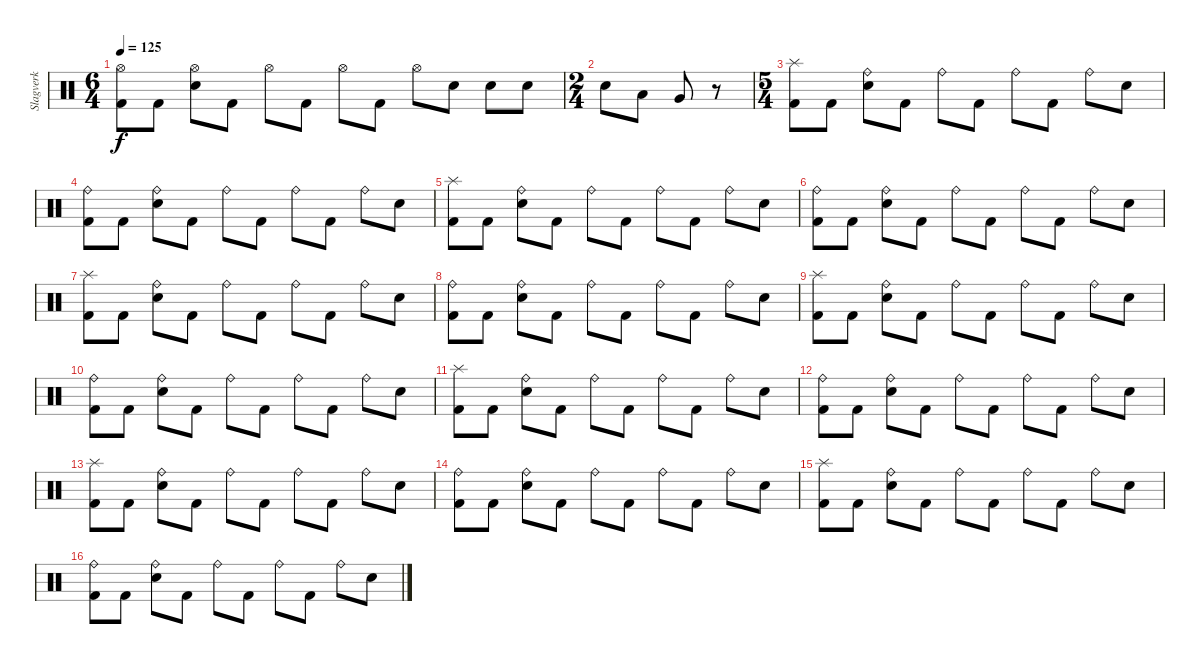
\track ("Slagverk" "Slagverk") {instrument percussion}
\staff {score}
\articulation defaults
\ts (6 4)
\tempo 125
\clef neutral
\ks c
("Hi-Hat (open)" "Kick (hit) 2").8{dy f} "Kick (hit) 2".8 ("Hi-Hat (open)" "Snare (hit) 2").8 "Kick (hit) 2".8 "Hi-Hat (open)".8 "Kick (hit) 2".8 "Hi-Hat (open)".8 "Kick (hit) 2".8 "Hi-Hat (open)".8 "Snare (hit) 2".8 "Snare (hit) 2".8 "Snare (hit) 2".8 |
\ts (2 4)
"Snare (hit) 2".8 "Low Tom (hit)".8 "Very Low Tom (hit)".8 r.8 |
\ts (5 4)
("Splash (hit)" "Kick (hit) 2").8 "Kick (hit) 2".8 ("Ride (bell)" "Snare (hit) 2").8 "Kick (hit) 2".8 "Ride (bell)".8 "Kick (hit) 2".8 "Ride (bell)".8 "Kick (hit) 2".8 "Ride (bell)".8 "Snare (hit) 2".8 |
("Ride (bell)" "Kick (hit) 2").8 "Kick (hit) 2".8 ("Ride (bell)" "Snare (hit) 2").8 "Kick (hit) 2".8 "Ride (bell)".8 "Kick (hit) 2".8 "Ride (bell)".8 "Kick (hit) 2".8 "Ride (bell)".8 "Snare (hit) 2".8 |
("Splash (hit)" "Kick (hit) 2").8 "Kick (hit) 2".8 ("Ride (bell)" "Snare (hit) 2").8 "Kick (hit) 2".8 "Ride (bell)".8 "Kick (hit) 2".8 "Ride (bell)".8 "Kick (hit) 2".8 "Ride (bell)".8 "Snare (hit) 2".8 |
("Ride (bell)" "Kick (hit) 2").8 "Kick (hit) 2".8 ("Ride (bell)" "Snare (hit) 2").8 "Kick (hit) 2".8 "Ride (bell)".8 "Kick (hit) 2".8 "Ride (bell)".8 "Kick (hit) 2".8 "Ride (bell)".8 "Snare (hit) 2".8 |
("Splash (hit)" "Kick (hit) 2").8 "Kick (hit) 2".8 ("Ride (bell)" "Snare (hit) 2").8 "Kick (hit) 2".8 "Ride (bell)".8 "Kick (hit) 2".8 "Ride (bell)".8 "Kick (hit) 2".8 "Ride (bell)".8 "Snare (hit) 2".8 |
("Ride (bell)" "Kick (hit) 2").8 "Kick (hit) 2".8 ("Ride (bell)" "Snare (hit) 2").8 "Kick (hit) 2".8 "Ride (bell)".8 "Kick (hit) 2".8 "Ride (bell)".8 "Kick (hit) 2".8 "Ride (bell)".8 "Snare (hit) 2".8 |
("Splash (hit)" "Kick (hit) 2").8 "Kick (hit) 2".8 ("Ride (bell)" "Snare (hit) 2").8 "Kick (hit) 2".8 "Ride (bell)".8 "Kick (hit) 2".8 "Ride (bell)".8 "Kick (hit) 2".8 "Ride (bell)".8 "Snare (hit) 2".8 |
("Ride (bell)" "Kick (hit) 2").8 "Kick (hit) 2".8 ("Ride (bell)" "Snare (hit) 2").8 "Kick (hit) 2".8 "Ride (bell)".8 "Kick (hit) 2".8 "Ride (bell)".8 "Kick (hit) 2".8 "Ride (bell)".8 "Snare (hit) 2".8 |
("Splash (hit)" "Kick (hit) 2").8 "Kick (hit) 2".8 ("Ride (bell)" "Snare (hit) 2").8 "Kick (hit) 2".8 "Ride (bell)".8 "Kick (hit) 2".8 "Ride (bell)".8 "Kick (hit) 2".8 "Ride (bell)".8 "Snare (hit) 2".8 |
("Ride (bell)" "Kick (hit) 2").8 "Kick (hit) 2".8 ("Ride (bell)" "Snare (hit) 2").8 "Kick (hit) 2".8 "Ride (bell)".8 "Kick (hit) 2".8 "Ride (bell)".8 "Kick (hit) 2".8 "Ride (bell)".8 "Snare (hit) 2".8 |
("Splash (hit)" "Kick (hit) 2").8 "Kick (hit) 2".8 ("Ride (bell)" "Snare (hit) 2").8 "Kick (hit) 2".8 "Ride (bell)".8 "Kick (hit) 2".8 "Ride (bell)".8 "Kick (hit) 2".8 "Ride (bell)".8 "Snare (hit) 2".8 |
("Ride (bell)" "Kick (hit) 2").8 "Kick (hit) 2".8 ("Ride (bell)" "Snare (hit) 2").8 "Kick (hit) 2".8 "Ride (bell)".8 "Kick (hit) 2".8 "Ride (bell)".8 "Kick (hit) 2".8 "Ride (bell)".8 "Snare (hit) 2".8 |
("Splash (hit)" "Kick (hit) 2").8 "Kick (hit) 2".8 ("Ride (bell)" "Snare (hit) 2").8 "Kick (hit) 2".8 "Ride (bell)".8 "Kick (hit) 2".8 "Ride (bell)".8 "Kick (hit) 2".8 "Ride (bell)".8 "Snare (hit) 2".8 |
("Ride (bell)" "Kick (hit) 2").8 "Kick (hit) 2".8 ("Ride (bell)" "Snare (hit) 2").8 "Kick (hit) 2".8 "Ride (bell)".8 "Kick (hit) 2".8 "Ride (bell)".8 "Kick (hit) 2".8 "Ride (bell)".8 "Snare (hit) 2".8
